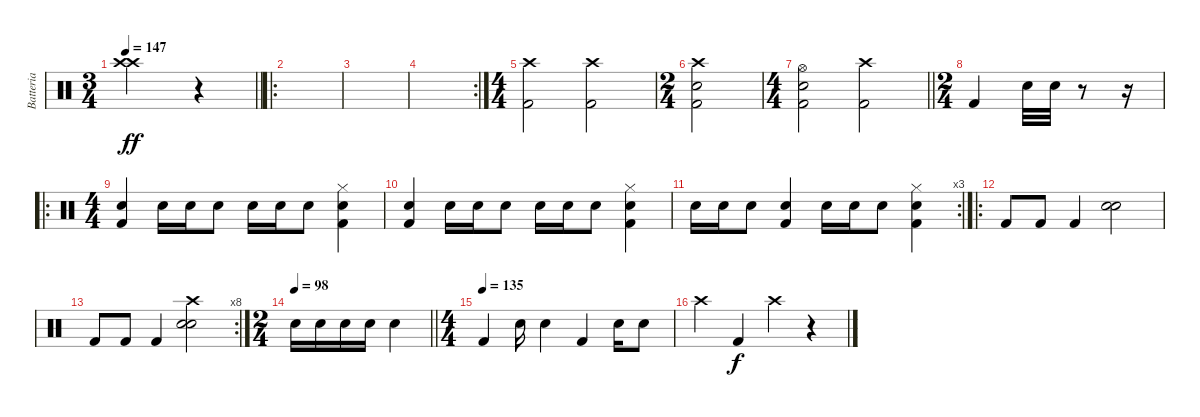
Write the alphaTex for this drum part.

\track ("Batteria" "Batteria") {instrument percussion}
\staff {score}
\articulation defaults
\ts (3 4)
\tempo 147
\clef neutral
\barLineRight lightlight
\ks c
("Crash high (hit)" "Crash high (hit)").2{dy ff} r.4 |
\ro
|
|
\rc 2
|
\ts (4 4)
("Kick (hit) 2" "Crash high (hit)").2 ("Kick (hit) 2" "Crash high (hit)").2 |
\ts (2 4)
("Snare (hit) 2" "Kick (hit) 2" "Crash high (hit)").2 |
\ts (4 4)
\barLineRight lightlight
("Kick (hit) 2" "Snare (hit) 2" "Hi-Hat (open)").2 ("Crash high (hit)" "Kick (hit) 2").2 |
\ts (2 4)
"Kick (hit) 2".4 "Snare (hit) 2".32 "Snare (hit) 2".32 r.8 r.16 |
\ro
\ts (4 4)
("Kick (hit) 2" "Snare (hit) 2").4 "Electric Snare (hit)".16 "Electric Snare (hit)".16 "Electric Snare (hit)".8 "Electric Snare (hit)".16 "Electric Snare (hit)".16 "Electric Snare (hit)".8 ("Kick (hit) 2" "Snare (hit) 2" "Hi-Hat (closed)").4 |
("Kick (hit) 2" "Snare (hit) 2").4 "Electric Snare (hit)".16 "Electric Snare (hit)".16 "Electric Snare (hit)".8 "Electric Snare (hit)".16 "Electric Snare (hit)".16 "Electric Snare (hit)".8 ("Kick (hit) 2" "Snare (hit) 2" "Hi-Hat (closed)").4 |
\rc 3 "Electric Snare (hit)".16 "Electric Snare (hit)".16 "Electric Snare (hit)".8
("Kick (hit) 2" "Snare (hit) 2").4 "Electric Snare (hit)".16 "Electric Snare (hit)".16 "Electric Snare (hit)".8 ("Kick (hit) 2" "Snare (hit) 2" "Hi-Hat (closed)").4 |
\ro "Kick (hit) 2".8 "Kick (hit) 2".8 "Kick (hit) 2".4
("Snare (hit) 2" "Electric Snare (hit)").2 |
\rc 8 "Kick (hit) 2".8 "Kick (hit) 2".8 "Kick (hit) 2".4
("Snare (hit) 2" "Electric Snare (hit)" "Crash high (hit)").2 |
\ts (2 4)
\tempo 98
\barLineRight lightlight "Snare (hit) 2".16 "Snare (hit) 2".16 "Snare (hit) 2".16 "Snare (hit) 2".16 "Snare (hit) 2".4
|
\ts (4 4)
\tempo (135)
"Kick (hit) 2".4 "Snare (hit) 2".16 "Snare (hit) 2".4 "Kick (hit) 2".4 "Snare (hit) 2".16 "Snare (hit) 2".8 |
"Crash high (hit)".4 "Kick (hit) 2".4{dy f} "Crash high (hit)".4 r.4
